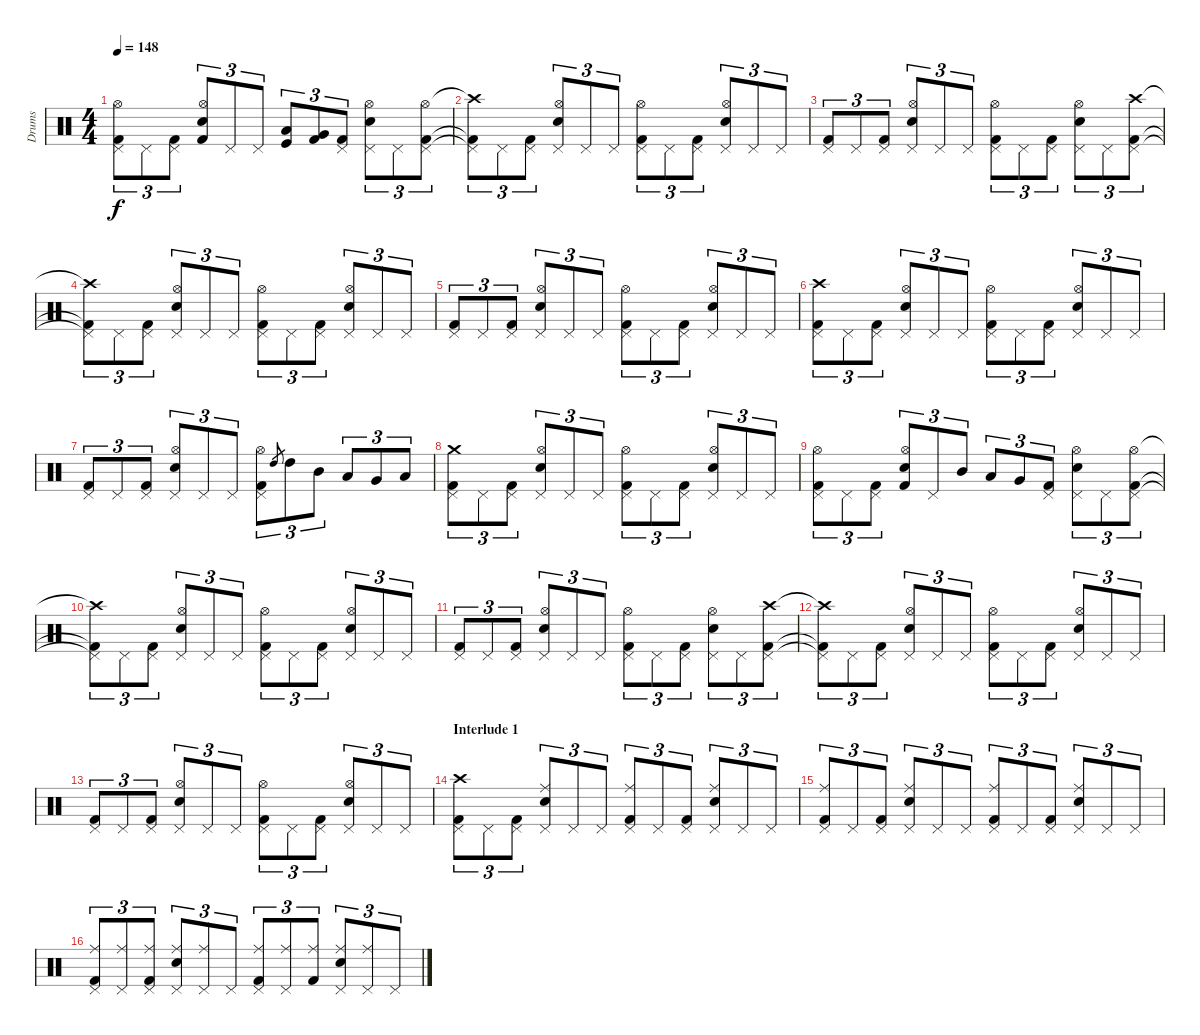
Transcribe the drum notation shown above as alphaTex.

\track ("Drums" "Drums") {instrument percussion}
\staff {score}
\articulation defaults
\ts (4 4)
\tempo 148
\clef neutral
\ks c
("Kick (hit) 2" "Pedal Hi-Hat (hit)" "Hi-Hat (open)").8{tu (3 2) dy f} "Pedal Hi-Hat (hit)".8{tu (3 2)} ("Kick (hit) 2" "Pedal Hi-Hat (hit)").8{tu (3 2)} ("Snare (hit) 2" "Kick (hit) 2" "Hi-Hat (open)").8{tu (3 2)} "Pedal Hi-Hat (hit)".8{tu (3 2)} "Pedal Hi-Hat (hit)".8{tu (3 2)} ("Low Tom (hit)" "Kick (hit)").8{tu (3 2)} ("Very Low Tom (hit)" "Kick (hit) 2").8{tu (3 2)} ("Kick (hit) 2" "Pedal Hi-Hat (hit)").8{tu (3 2)} ("Snare (hit) 2" "Pedal Hi-Hat (hit)" "Hi-Hat (open)").8{tu (3 2)} "Pedal Hi-Hat (hit)".8{tu (3 2)} ("Kick (hit) 2" "Pedal Hi-Hat (hit)" "Hi-Hat (open)").8{tu (3 2)} |
("Kick (hit) 2"{t} "Pedal Hi-Hat (hit)"{t} "Crash high (hit)"{t}).8{tu (3 2)} "Pedal Hi-Hat (hit)".8{tu (3 2)} ("Kick (hit) 2" "Pedal Hi-Hat (hit)").8{tu (3 2)} ("Snare (hit) 2" "Pedal Hi-Hat (hit)" "Hi-Hat (open)").8{tu (3 2)} "Pedal Hi-Hat (hit)".8{tu (3 2)} "Pedal Hi-Hat (hit)".8{tu (3 2)} ("Kick (hit) 2" "Pedal Hi-Hat (hit)" "Hi-Hat (open)").8{tu (3 2)} "Pedal Hi-Hat (hit)".8{tu (3 2)} ("Kick (hit) 2" "Pedal Hi-Hat (hit)").8{tu (3 2)} ("Snare (hit) 2" "Pedal Hi-Hat (hit)" "Hi-Hat (open)").8{tu (3 2)} "Pedal Hi-Hat (hit)".8{tu (3 2)} "Pedal Hi-Hat (hit)".8{tu (3 2)} |
("Kick (hit) 2" "Pedal Hi-Hat (hit)").8{tu (3 2)} "Pedal Hi-Hat (hit)".8{tu (3 2)} ("Kick (hit) 2" "Pedal Hi-Hat (hit)").8{tu (3 2)} ("Snare (hit) 2" "Pedal Hi-Hat (hit)" "Hi-Hat (open)").8{tu (3 2)} "Pedal Hi-Hat (hit)".8{tu (3 2)} "Pedal Hi-Hat (hit)".8{tu (3 2)} ("Kick (hit) 2" "Pedal Hi-Hat (hit)" "Hi-Hat (open)").8{tu (3 2)} "Pedal Hi-Hat (hit)".8{tu (3 2)} ("Kick (hit) 2" "Pedal Hi-Hat (hit)").8{tu (3 2)} ("Snare (hit) 2" "Pedal Hi-Hat (hit)" "Hi-Hat (open)").8{tu (3 2)} "Pedal Hi-Hat (hit)".8{tu (3 2)} ("Kick (hit) 2" "Pedal Hi-Hat (hit)" "Crash high (hit)").8{tu (3 2)} |
("Kick (hit) 2"{t} "Pedal Hi-Hat (hit)"{t} "Crash high (hit)"{t}).8{tu (3 2)} "Pedal Hi-Hat (hit)".8{tu (3 2)} ("Kick (hit) 2" "Pedal Hi-Hat (hit)").8{tu (3 2)} ("Snare (hit) 2" "Pedal Hi-Hat (hit)" "Hi-Hat (open)").8{tu (3 2)} "Pedal Hi-Hat (hit)".8{tu (3 2)} "Pedal Hi-Hat (hit)".8{tu (3 2)} ("Kick (hit) 2" "Pedal Hi-Hat (hit)" "Hi-Hat (open)").8{tu (3 2)} "Pedal Hi-Hat (hit)".8{tu (3 2)} ("Kick (hit) 2" "Pedal Hi-Hat (hit)").8{tu (3 2)} ("Snare (hit) 2" "Pedal Hi-Hat (hit)" "Hi-Hat (open)").8{tu (3 2)} "Pedal Hi-Hat (hit)".8{tu (3 2)} "Pedal Hi-Hat (hit)".8{tu (3 2)} |
("Kick (hit) 2" "Pedal Hi-Hat (hit)").8{tu (3 2)} "Pedal Hi-Hat (hit)".8{tu (3 2)} ("Kick (hit) 2" "Pedal Hi-Hat (hit)").8{tu (3 2)} ("Snare (hit) 2" "Pedal Hi-Hat (hit)" "Hi-Hat (open)").8{tu (3 2)} "Pedal Hi-Hat (hit)".8{tu (3 2)} "Pedal Hi-Hat (hit)".8{tu (3 2)} ("Kick (hit) 2" "Pedal Hi-Hat (hit)" "Hi-Hat (open)").8{tu (3 2)} "Pedal Hi-Hat (hit)".8{tu (3 2)} ("Kick (hit) 2" "Pedal Hi-Hat (hit)").8{tu (3 2)} ("Snare (hit) 2" "Pedal Hi-Hat (hit)" "Hi-Hat (open)").8{tu (3 2)} "Pedal Hi-Hat (hit)".8{tu (3 2)} "Pedal Hi-Hat (hit)".8{tu (3 2)} |
("Kick (hit) 2" "Pedal Hi-Hat (hit)" "Crash high (hit)").8{tu (3 2)} "Pedal Hi-Hat (hit)".8{tu (3 2)} ("Kick (hit) 2" "Pedal Hi-Hat (hit)").8{tu (3 2)} ("Snare (hit) 2" "Pedal Hi-Hat (hit)" "Hi-Hat (open)").8{tu (3 2)} "Pedal Hi-Hat (hit)".8{tu (3 2)} "Pedal Hi-Hat (hit)".8{tu (3 2)} ("Kick (hit) 2" "Pedal Hi-Hat (hit)" "Hi-Hat (open)").8{tu (3 2)} "Pedal Hi-Hat (hit)".8{tu (3 2)} ("Kick (hit) 2" "Pedal Hi-Hat (hit)").8{tu (3 2)} ("Snare (hit) 2" "Pedal Hi-Hat (hit)" "Hi-Hat (open)").8{tu (3 2)} "Pedal Hi-Hat (hit)".8{tu (3 2)} "Pedal Hi-Hat (hit)".8{tu (3 2)} |
("Kick (hit) 2" "Pedal Hi-Hat (hit)").8{tu (3 2)} "Pedal Hi-Hat (hit)".8{tu (3 2)} ("Kick (hit) 2" "Pedal Hi-Hat (hit)").8{tu (3 2)} ("Snare (hit) 2" "Pedal Hi-Hat (hit)" "Hi-Hat (open)").8{tu (3 2)} "Pedal Hi-Hat (hit)".8{tu (3 2)} "Pedal Hi-Hat (hit)".8{tu (3 2)} ("Kick (hit) 2" "Pedal Hi-Hat (hit)" "Hi-Hat (open)").8{tu (3 2)} "High Tom (hit)".8{gr} "High Tom (hit)".8{tu (3 2)} "Mid Tom (hit)".8{tu (3 2)} "Low Tom (hit)".8{tu (3 2)} "Very Low Tom (hit)".8{tu (3 2)} "Low Floor Tom (hit)".8{tu (3 2)} |
("Kick (hit) 2" "Pedal Hi-Hat (hit)" "Crash medium (hit)").8{tu (3 2)} "Pedal Hi-Hat (hit)".8{tu (3 2)} ("Kick (hit) 2" "Pedal Hi-Hat (hit)").8{tu (3 2)} ("Snare (hit) 2" "Pedal Hi-Hat (hit)" "Hi-Hat (open)").8{tu (3 2)} "Pedal Hi-Hat (hit)".8{tu (3 2)} "Pedal Hi-Hat (hit)".8{tu (3 2)} ("Kick (hit) 2" "Pedal Hi-Hat (hit)" "Hi-Hat (open)").8{tu (3 2)} "Pedal Hi-Hat (hit)".8{tu (3 2)} ("Kick (hit) 2" "Pedal Hi-Hat (hit)").8{tu (3 2)} ("Snare (hit) 2" "Pedal Hi-Hat (hit)" "Hi-Hat (open)").8{tu (3 2)} "Pedal Hi-Hat (hit)".8{tu (3 2)} "Pedal Hi-Hat (hit)".8{tu (3 2)} |
("Kick (hit) 2" "Pedal Hi-Hat (hit)" "Hi-Hat (open)").8{tu (3 2)} "Pedal Hi-Hat (hit)".8{tu (3 2)} ("Kick (hit) 2" "Pedal Hi-Hat (hit)").8{tu (3 2)} ("Snare (hit) 2" "Kick (hit) 2" "Hi-Hat (open)").8{tu (3 2)} "Pedal Hi-Hat (hit)".8{tu (3 2)} "Mid Tom (hit)".8{tu (3 2)} "Low Tom (hit)".8{tu (3 2)} "Very Low Tom (hit)".8{tu (3 2)} ("Kick (hit) 2" "Pedal Hi-Hat (hit)").8{tu (3 2)} ("Snare (hit) 2" "Pedal Hi-Hat (hit)" "Hi-Hat (open)").8{tu (3 2)} "Pedal Hi-Hat (hit)".8{tu (3 2)} ("Kick (hit) 2" "Pedal Hi-Hat (hit)" "Hi-Hat (open)").8{tu (3 2)} |
("Kick (hit) 2"{t} "Pedal Hi-Hat (hit)"{t} "Crash high (hit)"{t}).8{tu (3 2)} "Pedal Hi-Hat (hit)".8{tu (3 2)} ("Kick (hit) 2" "Pedal Hi-Hat (hit)").8{tu (3 2)} ("Snare (hit) 2" "Pedal Hi-Hat (hit)" "Hi-Hat (open)").8{tu (3 2)} "Pedal Hi-Hat (hit)".8{tu (3 2)} "Pedal Hi-Hat (hit)".8{tu (3 2)} ("Kick (hit) 2" "Pedal Hi-Hat (hit)" "Hi-Hat (open)").8{tu (3 2)} "Pedal Hi-Hat (hit)".8{tu (3 2)} ("Kick (hit) 2" "Pedal Hi-Hat (hit)").8{tu (3 2)} ("Snare (hit) 2" "Pedal Hi-Hat (hit)" "Hi-Hat (open)").8{tu (3 2)} "Pedal Hi-Hat (hit)".8{tu (3 2)} "Pedal Hi-Hat (hit)".8{tu (3 2)} |
("Kick (hit) 2" "Pedal Hi-Hat (hit)").8{tu (3 2)} "Pedal Hi-Hat (hit)".8{tu (3 2)} ("Kick (hit) 2" "Pedal Hi-Hat (hit)").8{tu (3 2)} ("Snare (hit) 2" "Pedal Hi-Hat (hit)" "Hi-Hat (open)").8{tu (3 2)} "Pedal Hi-Hat (hit)".8{tu (3 2)} "Pedal Hi-Hat (hit)".8{tu (3 2)} ("Kick (hit) 2" "Pedal Hi-Hat (hit)" "Hi-Hat (open)").8{tu (3 2)} "Pedal Hi-Hat (hit)".8{tu (3 2)} ("Kick (hit) 2" "Pedal Hi-Hat (hit)").8{tu (3 2)} ("Snare (hit) 2" "Pedal Hi-Hat (hit)" "Hi-Hat (open)").8{tu (3 2)} "Pedal Hi-Hat (hit)".8{tu (3 2)} ("Kick (hit) 2" "Pedal Hi-Hat (hit)" "Crash high (hit)").8{tu (3 2)} |
("Kick (hit) 2"{t} "Pedal Hi-Hat (hit)"{t} "Crash high (hit)"{t}).8{tu (3 2)} "Pedal Hi-Hat (hit)".8{tu (3 2)} ("Kick (hit) 2" "Pedal Hi-Hat (hit)").8{tu (3 2)} ("Snare (hit) 2" "Pedal Hi-Hat (hit)" "Hi-Hat (open)").8{tu (3 2)} "Pedal Hi-Hat (hit)".8{tu (3 2)} "Pedal Hi-Hat (hit)".8{tu (3 2)} ("Kick (hit) 2" "Pedal Hi-Hat (hit)" "Hi-Hat (open)").8{tu (3 2)} "Pedal Hi-Hat (hit)".8{tu (3 2)} ("Kick (hit) 2" "Pedal Hi-Hat (hit)").8{tu (3 2)} ("Snare (hit) 2" "Pedal Hi-Hat (hit)" "Hi-Hat (open)").8{tu (3 2)} "Pedal Hi-Hat (hit)".8{tu (3 2)} "Pedal Hi-Hat (hit)".8{tu (3 2)} |
("Kick (hit) 2" "Pedal Hi-Hat (hit)").8{tu (3 2)} "Pedal Hi-Hat (hit)".8{tu (3 2)} ("Kick (hit) 2" "Pedal Hi-Hat (hit)").8{tu (3 2)} ("Snare (hit) 2" "Pedal Hi-Hat (hit)" "Hi-Hat (open)").8{tu (3 2)} "Pedal Hi-Hat (hit)".8{tu (3 2)} "Pedal Hi-Hat (hit)".8{tu (3 2)} ("Kick (hit) 2" "Pedal Hi-Hat (hit)" "Hi-Hat (open)").8{tu (3 2)} "Pedal Hi-Hat (hit)".8{tu (3 2)} ("Kick (hit) 2" "Pedal Hi-Hat (hit)").8{tu (3 2)} ("Snare (hit) 2" "Pedal Hi-Hat (hit)" "Hi-Hat (open)").8{tu (3 2)} "Pedal Hi-Hat (hit)".8{tu (3 2)} "Pedal Hi-Hat (hit)".8{tu (3 2)} |
\section ("" "Interlude 1")
("Kick (hit) 2" "Pedal Hi-Hat (hit)" "Crash high (hit)").8{tu (3 2)} "Pedal Hi-Hat (hit)".8{tu (3 2)} ("Kick (hit) 2" "Pedal Hi-Hat (hit)").8{tu (3 2)} ("Snare (hit) 2" "Pedal Hi-Hat (hit)" "Ride (middle)").8{tu (3 2)} "Pedal Hi-Hat (hit)".8{tu (3 2)} "Pedal Hi-Hat (hit)".8{tu (3 2)} ("Kick (hit) 2" "Pedal Hi-Hat (hit)" "Ride (middle)").8{tu (3 2)} "Pedal Hi-Hat (hit)".8{tu (3 2)} ("Kick (hit) 2" "Pedal Hi-Hat (hit)").8{tu (3 2)} ("Snare (hit) 2" "Pedal Hi-Hat (hit)" "Ride (middle)").8{tu (3 2)} "Pedal Hi-Hat (hit)".8{tu (3 2)} "Pedal Hi-Hat (hit)".8{tu (3 2)} |
("Kick (hit) 2" "Pedal Hi-Hat (hit)" "Ride (middle)").8{tu (3 2)} "Pedal Hi-Hat (hit)".8{tu (3 2)} ("Kick (hit) 2" "Pedal Hi-Hat (hit)").8{tu (3 2)} ("Snare (hit) 2" "Pedal Hi-Hat (hit)" "Ride (middle)").8{tu (3 2)} "Pedal Hi-Hat (hit)".8{tu (3 2)} "Pedal Hi-Hat (hit)".8{tu (3 2)} ("Kick (hit) 2" "Pedal Hi-Hat (hit)" "Ride (middle)").8{tu (3 2)} "Pedal Hi-Hat (hit)".8{tu (3 2)} ("Kick (hit) 2" "Pedal Hi-Hat (hit)").8{tu (3 2)} ("Snare (hit) 2" "Pedal Hi-Hat (hit)" "Ride (middle)").8{tu (3 2)} "Pedal Hi-Hat (hit)".8{tu (3 2)} "Pedal Hi-Hat (hit)".8{tu (3 2)} |
("Kick (hit) 2" "Pedal Hi-Hat (hit)" "Ride (middle)").8{tu (3 2)} ("Pedal Hi-Hat (hit)" "Ride (middle)").8{tu (3 2)} ("Kick (hit) 2" "Pedal Hi-Hat (hit)" "Ride (middle)").8{tu (3 2)} ("Snare (hit) 2" "Pedal Hi-Hat (hit)" "Ride (middle)").8{tu (3 2)} ("Pedal Hi-Hat (hit)" "Ride (middle)").8{tu (3 2)} "Pedal Hi-Hat (hit)".8{tu (3 2)} ("Kick (hit) 2" "Pedal Hi-Hat (hit)" "Ride (middle)").8{tu (3 2)} ("Pedal Hi-Hat (hit)" "Ride (middle)").8{tu (3 2)} ("Kick (hit) 2" "Ride (middle)").8{tu (3 2)} ("Snare (hit) 2" "Pedal Hi-Hat (hit)" "Ride (middle)").8{tu (3 2)} ("Pedal Hi-Hat (hit)" "Ride (middle)").8{tu (3 2)} "Pedal Hi-Hat (hit)".8{tu (3 2)}
